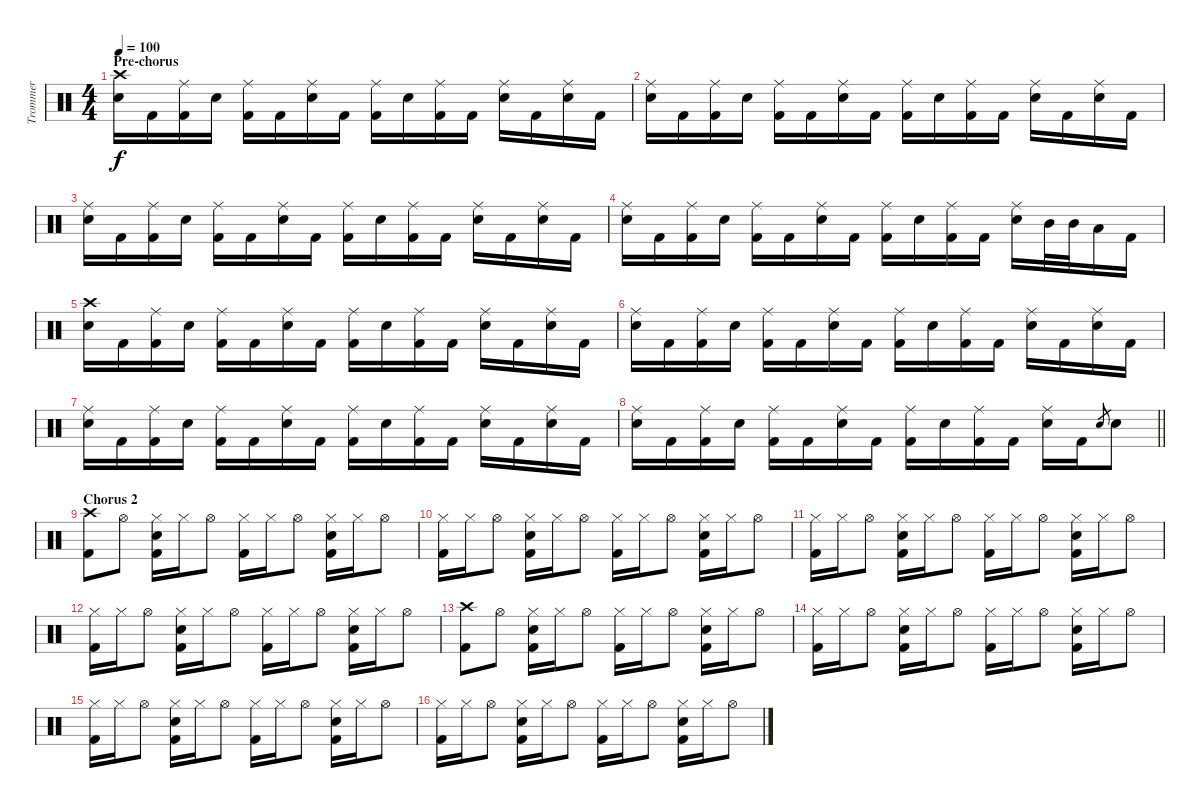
\track ("Trommer" "Trommer") {instrument percussion}
\staff {score}
\articulation defaults
\ts (4 4)
\section ("" "Pre-chorus")
\tempo 100
\clef neutral
\ks c
("Crash high (hit)" "Snare (hit) 2").16{dy f} "Kick (hit) 2".16 ("Ride (middle)" "Kick (hit) 2").16 "Snare (hit) 2".16 ("Ride (middle)" "Kick (hit) 2").16 "Kick (hit) 2".16 ("Ride (middle)" "Snare (hit) 2").16 "Kick (hit) 2".16 ("Ride (middle)" "Kick (hit) 2").16 "Snare (hit) 2".16 ("Ride (middle)" "Kick (hit) 2").16 "Kick (hit) 2".16 ("Ride (middle)" "Snare (hit) 2").16 "Kick (hit) 2".16 ("Ride (middle)" "Snare (hit) 2").16 "Kick (hit) 2".16 |
("Ride (middle)" "Snare (hit) 2").16 "Kick (hit) 2".16 ("Ride (middle)" "Kick (hit) 2").16 "Snare (hit) 2".16 ("Ride (middle)" "Kick (hit) 2").16 "Kick (hit) 2".16 ("Ride (middle)" "Snare (hit) 2").16 "Kick (hit) 2".16 ("Ride (middle)" "Kick (hit) 2").16 "Snare (hit) 2".16 ("Ride (middle)" "Kick (hit) 2").16 "Kick (hit) 2".16 ("Ride (middle)" "Snare (hit) 2").16 "Kick (hit) 2".16 ("Ride (middle)" "Snare (hit) 2").16 "Kick (hit) 2".16 |
("Ride (middle)" "Snare (hit) 2").16 "Kick (hit) 2".16 ("Ride (middle)" "Kick (hit) 2").16 "Snare (hit) 2".16 ("Ride (middle)" "Kick (hit) 2").16 "Kick (hit) 2".16 ("Ride (middle)" "Snare (hit) 2").16 "Kick (hit) 2".16 ("Ride (middle)" "Kick (hit) 2").16 "Snare (hit) 2".16 ("Ride (middle)" "Kick (hit) 2").16 "Kick (hit) 2".16 ("Ride (middle)" "Snare (hit) 2").16 "Kick (hit) 2".16 ("Ride (middle)" "Snare (hit) 2").16 "Kick (hit) 2".16 |
("Ride (middle)" "Snare (hit) 2").16 "Kick (hit) 2".16 ("Ride (middle)" "Kick (hit) 2").16 "Snare (hit) 2".16 ("Ride (middle)" "Kick (hit) 2").16 "Kick (hit) 2".16 ("Ride (middle)" "Snare (hit) 2").16 "Kick (hit) 2".16 ("Ride (middle)" "Kick (hit) 2").16 "Snare (hit) 2".16 ("Ride (middle)" "Kick (hit) 2").16 "Kick (hit) 2".16 ("Ride (middle)" "Snare (hit) 2").16 "Mid Tom (hit)".32 "Mid Tom (hit)".32 "Low Tom (hit)".16 "Kick (hit) 2".16 |
("Crash high (hit)" "Snare (hit) 2").16 "Kick (hit) 2".16 ("Ride (middle)" "Kick (hit) 2").16 "Snare (hit) 2".16 ("Ride (middle)" "Kick (hit) 2").16 "Kick (hit) 2".16 ("Ride (middle)" "Snare (hit) 2").16 "Kick (hit) 2".16 ("Ride (middle)" "Kick (hit) 2").16 "Snare (hit) 2".16 ("Ride (middle)" "Kick (hit) 2").16 "Kick (hit) 2".16 ("Ride (middle)" "Snare (hit) 2").16 "Kick (hit) 2".16 ("Ride (middle)" "Snare (hit) 2").16 "Kick (hit) 2".16 |
("Ride (middle)" "Snare (hit) 2").16 "Kick (hit) 2".16 ("Ride (middle)" "Kick (hit) 2").16 "Snare (hit) 2".16 ("Ride (middle)" "Kick (hit) 2").16 "Kick (hit) 2".16 ("Ride (middle)" "Snare (hit) 2").16 "Kick (hit) 2".16 ("Ride (middle)" "Kick (hit) 2").16 "Snare (hit) 2".16 ("Ride (middle)" "Kick (hit) 2").16 "Kick (hit) 2".16 ("Ride (middle)" "Snare (hit) 2").16 "Kick (hit) 2".16 ("Ride (middle)" "Snare (hit) 2").16 "Kick (hit) 2".16 |
("Ride (middle)" "Snare (hit) 2").16 "Kick (hit) 2".16 ("Ride (middle)" "Kick (hit) 2").16 "Snare (hit) 2".16 ("Ride (middle)" "Kick (hit) 2").16 "Kick (hit) 2".16 ("Ride (middle)" "Snare (hit) 2").16 "Kick (hit) 2".16 ("Ride (middle)" "Kick (hit) 2").16 "Snare (hit) 2".16 ("Ride (middle)" "Kick (hit) 2").16 "Kick (hit) 2".16 ("Ride (middle)" "Snare (hit) 2").16 "Kick (hit) 2".16 ("Ride (middle)" "Snare (hit) 2").16 "Kick (hit) 2".16 |
\barLineRight lightlight
("Ride (middle)" "Snare (hit) 2").16 "Kick (hit) 2".16 ("Ride (middle)" "Kick (hit) 2").16 "Snare (hit) 2".16 ("Ride (middle)" "Kick (hit) 2").16 "Kick (hit) 2".16 ("Ride (middle)" "Snare (hit) 2").16 "Kick (hit) 2".16 ("Ride (middle)" "Kick (hit) 2").16 "Snare (hit) 2".16 ("Ride (middle)" "Kick (hit) 2").16 "Kick (hit) 2".16 ("Ride (middle)" "Snare (hit) 2").16 "Kick (hit) 2".16 "Snare (hit) 2".8{gr} "Snare (hit) 2".8 |
\section ("" "Chorus 2")
("Crash high (hit)" "Kick (hit) 2").8 "Hi-Hat (open)".8 ("Hi-Hat (closed)" "Snare (hit) 2" "Kick (hit) 2").16 "Hi-Hat (closed)".16 "Hi-Hat (open)".8 ("Hi-Hat (closed)" "Kick (hit) 2").16 "Hi-Hat (closed)".16 "Hi-Hat (open)".8 ("Hi-Hat (closed)" "Snare (hit) 2" "Kick (hit) 2").16 "Hi-Hat (closed)".16 "Hi-Hat (open)".8 |
("Hi-Hat (closed)" "Kick (hit) 2").16 "Hi-Hat (closed)".16 "Hi-Hat (open)".8 ("Hi-Hat (closed)" "Snare (hit) 2" "Kick (hit) 2").16 "Hi-Hat (closed)".16 "Hi-Hat (open)".8 ("Hi-Hat (closed)" "Kick (hit) 2").16 "Hi-Hat (closed)".16 "Hi-Hat (open)".8 ("Hi-Hat (closed)" "Snare (hit) 2" "Kick (hit) 2").16 "Hi-Hat (closed)".16 "Hi-Hat (open)".8 |
("Hi-Hat (closed)" "Kick (hit) 2").16 "Hi-Hat (closed)".16 "Hi-Hat (open)".8 ("Hi-Hat (closed)" "Snare (hit) 2" "Kick (hit) 2").16 "Hi-Hat (closed)".16 "Hi-Hat (open)".8 ("Hi-Hat (closed)" "Kick (hit) 2").16 "Hi-Hat (closed)".16 "Hi-Hat (open)".8 ("Hi-Hat (closed)" "Snare (hit) 2" "Kick (hit) 2").16 "Hi-Hat (closed)".16 "Hi-Hat (open)".8 |
("Hi-Hat (closed)" "Kick (hit) 2").16 "Hi-Hat (closed)".16 "Hi-Hat (open)".8 ("Hi-Hat (closed)" "Snare (hit) 2" "Kick (hit) 2").16 "Hi-Hat (closed)".16 "Hi-Hat (open)".8 ("Hi-Hat (closed)" "Kick (hit) 2").16 "Hi-Hat (closed)".16 "Hi-Hat (open)".8 ("Hi-Hat (closed)" "Snare (hit) 2" "Kick (hit) 2").16 "Hi-Hat (closed)".16 "Hi-Hat (open)".8 |
("Crash high (hit)" "Kick (hit) 2").8 "Hi-Hat (open)".8 ("Hi-Hat (closed)" "Snare (hit) 2" "Kick (hit) 2").16 "Hi-Hat (closed)".16 "Hi-Hat (open)".8 ("Hi-Hat (closed)" "Kick (hit) 2").16 "Hi-Hat (closed)".16 "Hi-Hat (open)".8 ("Hi-Hat (closed)" "Snare (hit) 2" "Kick (hit) 2").16 "Hi-Hat (closed)".16 "Hi-Hat (open)".8 |
("Hi-Hat (closed)" "Kick (hit) 2").16 "Hi-Hat (closed)".16 "Hi-Hat (open)".8 ("Hi-Hat (closed)" "Snare (hit) 2" "Kick (hit) 2").16 "Hi-Hat (closed)".16 "Hi-Hat (open)".8 ("Hi-Hat (closed)" "Kick (hit) 2").16 "Hi-Hat (closed)".16 "Hi-Hat (open)".8 ("Hi-Hat (closed)" "Snare (hit) 2" "Kick (hit) 2").16 "Hi-Hat (closed)".16 "Hi-Hat (open)".8 |
("Hi-Hat (closed)" "Kick (hit) 2").16 "Hi-Hat (closed)".16 "Hi-Hat (open)".8 ("Hi-Hat (closed)" "Snare (hit) 2" "Kick (hit) 2").16 "Hi-Hat (closed)".16 "Hi-Hat (open)".8 ("Hi-Hat (closed)" "Kick (hit) 2").16 "Hi-Hat (closed)".16 "Hi-Hat (open)".8 ("Hi-Hat (closed)" "Snare (hit) 2" "Kick (hit) 2").16 "Hi-Hat (closed)".16 "Hi-Hat (open)".8 |
("Hi-Hat (closed)" "Kick (hit) 2").16 "Hi-Hat (closed)".16 "Hi-Hat (open)".8 ("Hi-Hat (closed)" "Snare (hit) 2" "Kick (hit) 2").16 "Hi-Hat (closed)".16 "Hi-Hat (open)".8 ("Hi-Hat (closed)" "Kick (hit) 2").16 "Hi-Hat (closed)".16 "Hi-Hat (open)".8 ("Hi-Hat (closed)" "Snare (hit) 2" "Kick (hit) 2").16 "Hi-Hat (closed)".16 "Hi-Hat (open)".8
